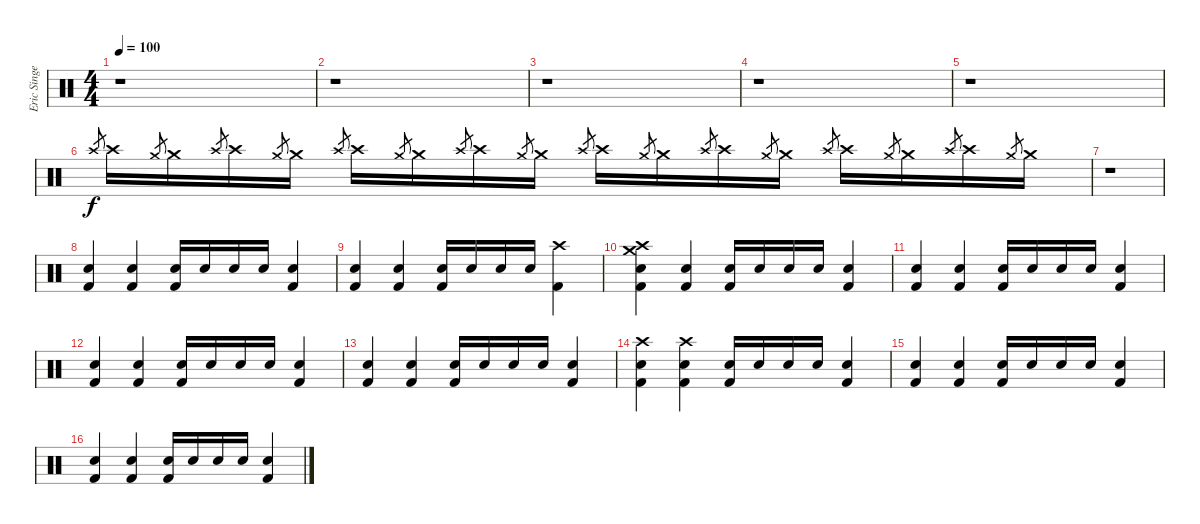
\track ("Eric Singer" "Eric Singe") {instrument percussion}
\staff {score}
\articulation defaults
\ts (4 4)
\tempo 100
\clef neutral
\ks c
r.1{dy f} |
r.1 |
r.1 |
r.1 |
r.1 |
"Crash high (hit)".8{gr} "Crash high (hit)".16 "Crash medium (hit)".8{gr} "Crash medium (hit)".16 "Crash high (hit)".8{gr} "Crash high (hit)".16 "Crash medium (hit)".8{gr} "Crash medium (hit)".16 "Crash high (hit)".8{gr} "Crash high (hit)".16 "Crash medium (hit)".8{gr} "Crash medium (hit)".16 "Crash high (hit)".8{gr} "Crash high (hit)".16 "Crash medium (hit)".8{gr} "Crash medium (hit)".16 "Crash high (hit)".8{gr} "Crash high (hit)".16 "Crash medium (hit)".8{gr} "Crash medium (hit)".16 "Crash high (hit)".8{gr} "Crash high (hit)".16 "Crash medium (hit)".8{gr} "Crash medium (hit)".16 "Crash high (hit)".8{gr} "Crash high (hit)".16 "Crash medium (hit)".8{gr} "Crash medium (hit)".16 "Crash high (hit)".8{gr} "Crash high (hit)".16 "Crash medium (hit)".8{gr} "Crash medium (hit)".16 |
r.1 |
("Snare (hit) 2" "Kick (hit) 2").4 ("Snare (hit) 2" "Kick (hit) 2").4 ("Snare (hit) 2" "Kick (hit) 2").16 "Snare (hit) 2".16 "Snare (hit) 2".16 "Snare (hit) 2".16 ("Snare (hit) 2" "Kick (hit) 2").4 |
("Snare (hit) 2" "Kick (hit) 2").4 ("Snare (hit) 2" "Kick (hit) 2").4 ("Snare (hit) 2" "Kick (hit) 2").16 "Snare (hit) 2".16 "Snare (hit) 2".16 "Snare (hit) 2".16 ("Crash high (hit)" "Kick (hit) 2").4 |
("Crash high (hit)" "Crash medium (hit)" "Snare (hit) 2" "Kick (hit) 2").4 ("Snare (hit) 2" "Kick (hit) 2").4 ("Snare (hit) 2" "Kick (hit) 2").16 "Snare (hit) 2".16 "Snare (hit) 2".16 "Snare (hit) 2".16 ("Snare (hit) 2" "Kick (hit) 2").4 |
("Snare (hit) 2" "Kick (hit) 2").4 ("Snare (hit) 2" "Kick (hit) 2").4 ("Snare (hit) 2" "Kick (hit) 2").16 "Snare (hit) 2".16 "Snare (hit) 2".16 "Snare (hit) 2".16 ("Snare (hit) 2" "Kick (hit) 2").4 |
("Snare (hit) 2" "Kick (hit) 2").4 ("Snare (hit) 2" "Kick (hit) 2").4 ("Snare (hit) 2" "Kick (hit) 2").16 "Snare (hit) 2".16 "Snare (hit) 2".16 "Snare (hit) 2".16 ("Snare (hit) 2" "Kick (hit) 2").4 |
("Snare (hit) 2" "Kick (hit) 2").4 ("Snare (hit) 2" "Kick (hit) 2").4 ("Snare (hit) 2" "Kick (hit) 2").16 "Snare (hit) 2".16 "Snare (hit) 2".16 "Snare (hit) 2".16 ("Snare (hit) 2" "Kick (hit) 2").4 |
("Crash high (hit)" "Snare (hit) 2" "Kick (hit) 2").4 ("Crash high (hit)" "Snare (hit) 2" "Kick (hit) 2").4 ("Snare (hit) 2" "Kick (hit) 2").16 "Snare (hit) 2".16 "Snare (hit) 2".16 "Snare (hit) 2".16 ("Snare (hit) 2" "Kick (hit) 2").4 |
("Snare (hit) 2" "Kick (hit) 2").4 ("Snare (hit) 2" "Kick (hit) 2").4 ("Snare (hit) 2" "Kick (hit) 2").16 "Snare (hit) 2".16 "Snare (hit) 2".16 "Snare (hit) 2".16 ("Snare (hit) 2" "Kick (hit) 2").4 |
("Snare (hit) 2" "Kick (hit) 2").4 ("Snare (hit) 2" "Kick (hit) 2").4 ("Snare (hit) 2" "Kick (hit) 2").16 "Snare (hit) 2".16 "Snare (hit) 2".16 "Snare (hit) 2".16 ("Snare (hit) 2" "Kick (hit) 2").4
